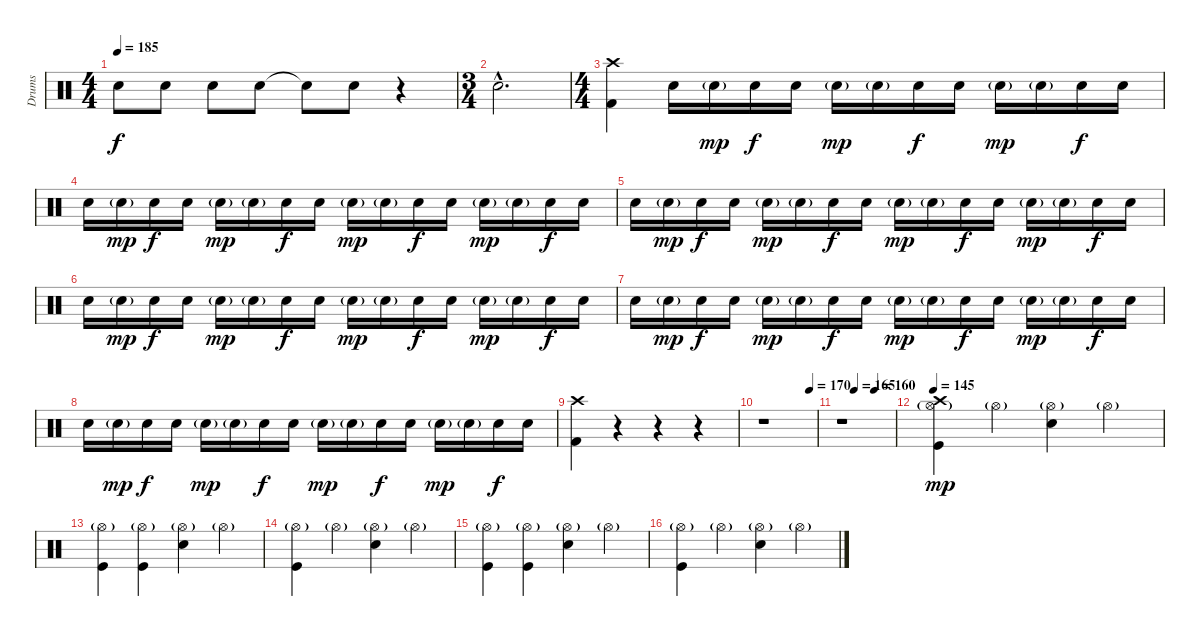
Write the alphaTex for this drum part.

\track ("Drums" "Drums") {instrument percussion}
\staff {score}
\articulation defaults
\ts (4 4)
\tempo 185
\clef neutral
\ks c "Electric Snare (hit)".8{dy f} "Electric Snare (hit)".8 "Electric Snare (hit)".8 "Electric Snare (hit)".8 "Snare (hit)"{t}.8 "Electric Snare (hit)".8
r.4 |
\ts (3 4)
"Electric Snare (hit)"{hac}.2{d} |
\ts (4 4)
("Crash high (hit)" "Kick (hit) 2").4 "Electric Snare (hit)".16{volume 8} "Electric Snare (hit)"{g}.16{dy mp} "Electric Snare (hit)".16{dy f} "Electric Snare (hit)".16 "Electric Snare (hit)"{g}.16{dy mp} "Electric Snare (hit)"{g}.16 "Electric Snare (hit)".16{dy f} "Electric Snare (hit)".16 "Electric Snare (hit)"{g}.16{dy mp} "Electric Snare (hit)"{g}.16 "Electric Snare (hit)".16{dy f} "Electric Snare (hit)".16 |
"Electric Snare (hit)".16 "Electric Snare (hit)"{g}.16{dy mp} "Electric Snare (hit)".16{dy f} "Electric Snare (hit)".16 "Electric Snare (hit)"{g}.16{dy mp} "Electric Snare (hit)"{g}.16 "Electric Snare (hit)".16{dy f} "Electric Snare (hit)".16 "Electric Snare (hit)"{g}.16{dy mp} "Electric Snare (hit)"{g}.16 "Electric Snare (hit)".16{dy f} "Electric Snare (hit)".16 "Electric Snare (hit)"{g}.16{dy mp} "Electric Snare (hit)"{g}.16 "Electric Snare (hit)".16{dy f} "Electric Snare (hit)".16 |
"Electric Snare (hit)".16 "Electric Snare (hit)"{g}.16{dy mp} "Electric Snare (hit)".16{dy f} "Electric Snare (hit)".16 "Electric Snare (hit)"{g}.16{dy mp} "Electric Snare (hit)"{g}.16 "Electric Snare (hit)".16{dy f} "Electric Snare (hit)".16 "Electric Snare (hit)"{g}.16{dy mp} "Electric Snare (hit)"{g}.16 "Electric Snare (hit)".16{dy f} "Electric Snare (hit)".16 "Electric Snare (hit)"{g}.16{dy mp} "Electric Snare (hit)"{g}.16 "Electric Snare (hit)".16{dy f} "Electric Snare (hit)".16 |
"Electric Snare (hit)".16 "Electric Snare (hit)"{g}.16{dy mp} "Electric Snare (hit)".16{dy f} "Electric Snare (hit)".16 "Electric Snare (hit)"{g}.16{dy mp} "Electric Snare (hit)"{g}.16 "Electric Snare (hit)".16{dy f} "Electric Snare (hit)".16 "Electric Snare (hit)"{g}.16{dy mp} "Electric Snare (hit)"{g}.16 "Electric Snare (hit)".16{dy f} "Electric Snare (hit)".16 "Electric Snare (hit)"{g}.16{dy mp} "Electric Snare (hit)"{g}.16 "Electric Snare (hit)".16{dy f} "Electric Snare (hit)".16 |
"Electric Snare (hit)".16 "Electric Snare (hit)"{g}.16{dy mp} "Electric Snare (hit)".16{dy f} "Electric Snare (hit)".16 "Electric Snare (hit)"{g}.16{dy mp} "Electric Snare (hit)"{g}.16 "Electric Snare (hit)".16{dy f} "Electric Snare (hit)".16 "Electric Snare (hit)"{g}.16{dy mp} "Electric Snare (hit)"{g}.16 "Electric Snare (hit)".16{dy f} "Electric Snare (hit)".16 "Electric Snare (hit)"{g}.16{dy mp} "Electric Snare (hit)"{g}.16 "Electric Snare (hit)".16{dy f} "Electric Snare (hit)".16 |
"Electric Snare (hit)".16 "Electric Snare (hit)"{g}.16{dy mp} "Electric Snare (hit)".16{dy f} "Electric Snare (hit)".16 "Electric Snare (hit)"{g}.16{dy mp} "Electric Snare (hit)"{g}.16 "Electric Snare (hit)".16{dy f} "Electric Snare (hit)".16 "Electric Snare (hit)"{g}.16{dy mp} "Electric Snare (hit)"{g}.16 "Electric Snare (hit)".16{dy f} "Electric Snare (hit)".16 "Electric Snare (hit)"{g}.16{dy mp} "Electric Snare (hit)"{g}.16 "Electric Snare (hit)".16{dy f} "Electric Snare (hit)".16 |
("Crash high (hit)" "Kick (hit) 2").4{volume 16} r.4 r.4 r.4 |
\tempo (170 0.875)
r.1 |
\tempo (165 0.25)
\tempo (160 0.625)
r.1 |
\tempo 145
("Hi-Hat (open)"{g} "Crash high (hit)" "Kick (hit)").4{dy mp} "Hi-Hat (open)"{g}.4 ("Hi-Hat (open)"{g} "Electric Snare (hit)").4 "Hi-Hat (open)"{g}.4 |
("Hi-Hat (open)"{g} "Kick (hit)").4 ("Hi-Hat (open)"{g} "Kick (hit)").4 ("Hi-Hat (open)"{g} "Electric Snare (hit)").4 "Hi-Hat (open)"{g}.4 |
("Hi-Hat (open)"{g} "Kick (hit)").4 "Hi-Hat (open)"{g}.4 ("Hi-Hat (open)"{g} "Electric Snare (hit)").4 "Hi-Hat (open)"{g}.4 |
("Hi-Hat (open)"{g} "Kick (hit)").4 ("Hi-Hat (open)"{g} "Kick (hit)").4 ("Hi-Hat (open)"{g} "Electric Snare (hit)").4 "Hi-Hat (open)"{g}.4 |
("Hi-Hat (open)"{g} "Kick (hit)").4 "Hi-Hat (open)"{g}.4 ("Hi-Hat (open)"{g} "Electric Snare (hit)").4 "Hi-Hat (open)"{g}.4
